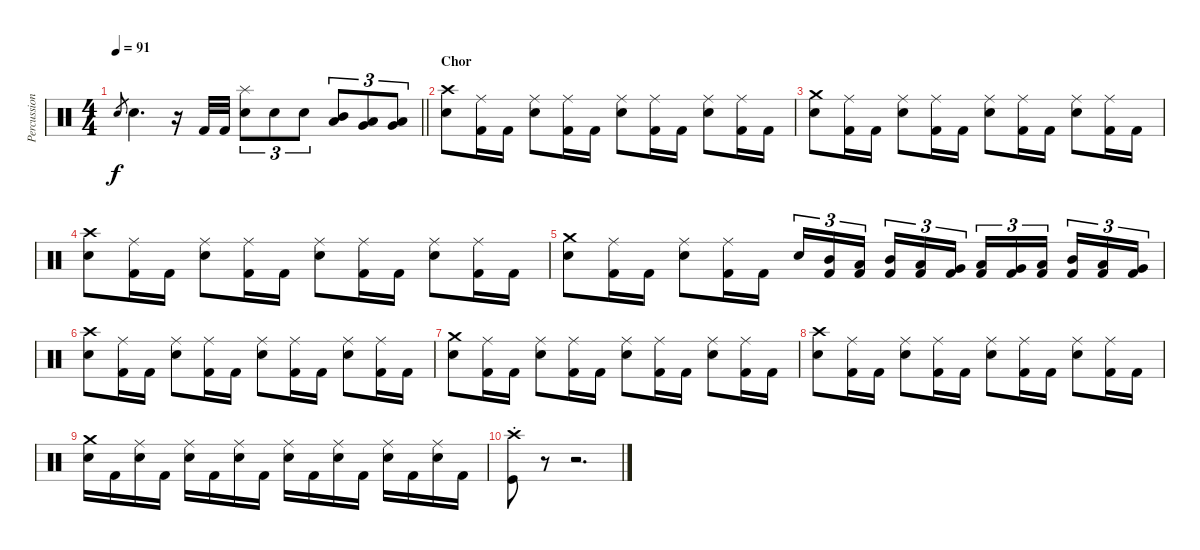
\track ("Percussion" "Percussion") {instrument percussion}
\staff {score}
\articulation defaults
\ts (4 4)
\tempo 91
\clef neutral
\barLineRight lightlight
\ks c "Snare (hit) 2".8{gr dy f} "Snare (hit) 2".4{d}
r.16 "Kick (hit) 2".32 "Kick (hit) 2".32 ("Snare (hit) 2" "Splash (hit)").8{tu (3 2)} "Snare (hit) 2".8{tu (3 2)} "Snare (hit) 2".8{tu (3 2)} ("Mid Tom (hit)" "Low Tom (hit)").8{tu (3 2)} ("Low Tom (hit)" "Very Low Tom (hit)").8{tu (3 2)} ("Very Low Tom (hit)" "Low Floor Tom (hit)").8{tu (3 2)} |
\section ("" "Chor")
("Snare (hit) 2" "Crash high (hit)").8 ("Ride (middle)" "Kick (hit) 2").16 "Kick (hit) 2".16 ("Snare (hit) 2" "Ride (middle)").8 ("Ride (middle)" "Kick (hit) 2").16 "Kick (hit) 2".16 ("Snare (hit) 2" "Ride (middle)").8 ("Ride (middle)" "Kick (hit) 2").16 "Kick (hit) 2".16 ("Snare (hit) 2" "Ride (middle)").8 ("Ride (middle)" "Kick (hit) 2").16 "Kick (hit) 2".16 |
("Snare (hit) 2" "Crash medium (hit)").8 ("Ride (middle)" "Kick (hit) 2").16 "Kick (hit) 2".16 ("Snare (hit) 2" "Ride (middle)").8 ("Ride (middle)" "Kick (hit) 2").16 "Kick (hit) 2".16 ("Snare (hit) 2" "Ride (middle)").8 ("Ride (middle)" "Kick (hit) 2").16 "Kick (hit) 2".16 ("Snare (hit) 2" "Ride (middle)").8 ("Ride (middle)" "Kick (hit) 2").16 "Kick (hit) 2".16 |
("Snare (hit) 2" "Crash high (hit)").8 ("Ride (middle)" "Kick (hit) 2").16 "Kick (hit) 2".16 ("Snare (hit) 2" "Ride (middle)").8 ("Ride (middle)" "Kick (hit) 2").16 "Kick (hit) 2".16 ("Snare (hit) 2" "Ride (middle)").8 ("Ride (middle)" "Kick (hit) 2").16 "Kick (hit) 2".16 ("Snare (hit) 2" "Ride (middle)").8 ("Ride (middle)" "Kick (hit) 2").16 "Kick (hit) 2".16 |
("Snare (hit) 2" "Crash medium (hit)").8 ("Ride (middle)" "Kick (hit) 2").16 "Kick (hit) 2".16 ("Snare (hit) 2" "Ride (middle)").8 ("Ride (middle)" "Kick (hit) 2").16 "Kick (hit) 2".16 "Snare (hit) 2".16{tu (3 2)} ("Mid Tom (hit)" "Kick (hit) 2").16{tu (3 2)} ("Low Tom (hit)" "Kick (hit) 2").16{tu (3 2) beam splitsecondary} ("Mid Tom (hit)" "Kick (hit) 2").16{tu (3 2)} ("Low Tom (hit)" "Kick (hit) 2").16{tu (3 2)} ("Very Low Tom (hit)" "Kick (hit) 2").16{tu (3 2)} ("Low Tom (hit)" "Kick (hit) 2").16{tu (3 2)} ("Very Low Tom (hit)" "Kick (hit) 2").16{tu (3 2)} ("Low Floor Tom (hit)" "Kick (hit) 2").16{tu (3 2) beam splitsecondary} ("Mid Tom (hit)" "Kick (hit) 2").16{tu (3 2)} ("Low Tom (hit)" "Kick (hit) 2").16{tu (3 2)} ("Very Low Tom (hit)" "Kick (hit) 2").16{tu (3 2)} |
("Snare (hit) 2" "Crash high (hit)").8 ("Ride (middle)" "Kick (hit) 2").16 "Kick (hit) 2".16 ("Snare (hit) 2" "Ride (middle)").8 ("Ride (middle)" "Kick (hit) 2").16 "Kick (hit) 2".16 ("Snare (hit) 2" "Ride (middle)").8 ("Ride (middle)" "Kick (hit) 2").16 "Kick (hit) 2".16 ("Snare (hit) 2" "Ride (middle)").8 ("Ride (middle)" "Kick (hit) 2").16 "Kick (hit) 2".16 |
("Snare (hit) 2" "Crash medium (hit)").8 ("Ride (middle)" "Kick (hit) 2").16 "Kick (hit) 2".16 ("Snare (hit) 2" "Ride (middle)").8 ("Ride (middle)" "Kick (hit) 2").16 "Kick (hit) 2".16 ("Snare (hit) 2" "Ride (middle)").8 ("Ride (middle)" "Kick (hit) 2").16 "Kick (hit) 2".16 ("Snare (hit) 2" "Ride (middle)").8 ("Ride (middle)" "Kick (hit) 2").16 "Kick (hit) 2".16 |
("Snare (hit) 2" "Crash high (hit)").8 ("Ride (middle)" "Kick (hit) 2").16 "Kick (hit) 2".16 ("Snare (hit) 2" "Ride (middle)").8 ("Ride (middle)" "Kick (hit) 2").16 "Kick (hit) 2".16 ("Snare (hit) 2" "Ride (middle)").8 ("Ride (middle)" "Kick (hit) 2").16 "Kick (hit) 2".16 ("Snare (hit) 2" "Ride (middle)").8 ("Ride (middle)" "Kick (hit) 2").16 "Kick (hit) 2".16 |
("Snare (hit) 2" "Crash medium (hit)").16 "Kick (hit) 2".16 ("Snare (hit) 2" "Ride (middle)").16 "Kick (hit) 2".16 ("Snare (hit) 2" "Ride (middle)").16 "Kick (hit) 2".16 ("Snare (hit) 2" "Ride (middle)").16 "Kick (hit) 2".16 ("Snare (hit) 2" "Ride (middle)").16 "Kick (hit) 2".16 ("Snare (hit) 2" "Ride (middle)").16 "Kick (hit) 2".16 ("Snare (hit) 2" "Ride (middle)").16 "Kick (hit) 2".16 ("Snare (hit) 2" "Ride (middle)").16 "Kick (hit) 2".16 |
("Crash high (hit)"{st} "Kick (hit)"{st}).8 r.8 r.2{d}
